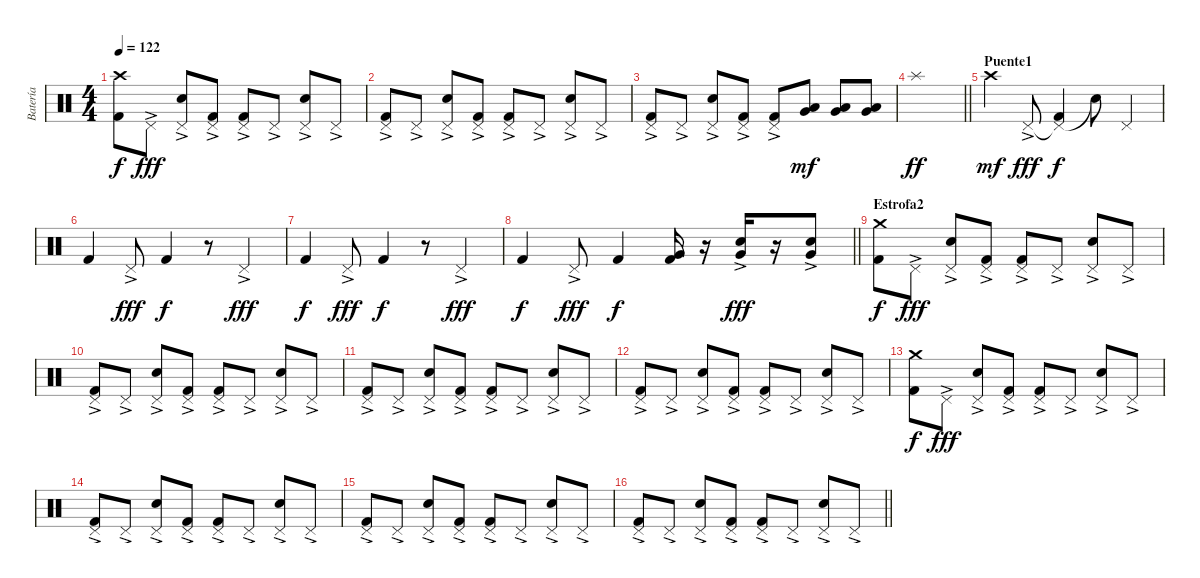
\track ("Batería" "Batería") {instrument percussion}
\staff {score}
\articulation defaults
\ts (4 4)
\tempo 122
\clef neutral
\ks c
("Crash high (hit)" "Kick (hit) 2").8{dy f} "Pedal Hi-Hat (hit)"{ac}.8{dy fff} ("Pedal Hi-Hat (hit)"{ac} "Electric Snare (hit)").8 ("Pedal Hi-Hat (hit)"{ac} "Kick (hit) 2").8 ("Pedal Hi-Hat (hit)"{ac} "Kick (hit) 2").8 "Pedal Hi-Hat (hit)"{ac}.8 ("Pedal Hi-Hat (hit)"{ac} "Electric Snare (hit)").8 "Pedal Hi-Hat (hit)"{ac}.8 |
("Pedal Hi-Hat (hit)"{ac} "Kick (hit) 2").8 "Pedal Hi-Hat (hit)"{ac}.8 ("Pedal Hi-Hat (hit)"{ac} "Electric Snare (hit)").8 ("Pedal Hi-Hat (hit)"{ac} "Kick (hit) 2").8 ("Pedal Hi-Hat (hit)"{ac} "Kick (hit) 2").8 "Pedal Hi-Hat (hit)"{ac}.8 ("Pedal Hi-Hat (hit)"{ac} "Electric Snare (hit)").8 "Pedal Hi-Hat (hit)"{ac}.8 |
("Pedal Hi-Hat (hit)"{ac} "Kick (hit) 2").8 "Pedal Hi-Hat (hit)"{ac}.8 ("Pedal Hi-Hat (hit)"{ac} "Electric Snare (hit)").8 ("Pedal Hi-Hat (hit)"{ac} "Kick (hit) 2").8 ("Pedal Hi-Hat (hit)"{ac} "Kick (hit) 2").8 ("Low Floor Tom (hit)" "Very Low Tom (hit)").8{dy mf} ("Low Floor Tom (hit)" "Very Low Tom (hit)").8 ("Low Floor Tom (hit)" "Very Low Tom (hit)").8 |
\barLineRight lightlight "Splash (hit)".1{dy ff}
|
\section ("" "Puente1")
"Crash high (hit)".4{dy mf} "Pedal Hi-Hat (hit)"{ac}.8{dy fff} ("Pedal Hi-Hat (hit)"{t} "Kick (hit) 2").4{dy f} "Snare (hit)"{t}.8 "Pedal Hi-Hat (hit)".4 |
"Kick (hit) 2".4 "Pedal Hi-Hat (hit)"{ac}.8{dy fff} "Kick (hit) 2".4{dy f} r.8 "Pedal Hi-Hat (hit)"{ac}.4{dy fff} |
"Kick (hit) 2".4{dy f} "Pedal Hi-Hat (hit)"{ac}.8{dy fff} "Kick (hit) 2".4{dy f} r.8 "Pedal Hi-Hat (hit)"{ac}.4{dy fff} |
\barLineRight lightlight "Kick (hit) 2".4{dy f} "Pedal Hi-Hat (hit)"{ac}.8{dy fff} "Kick (hit) 2".4{dy f}
("Very Low Tom (hit)" "Kick (hit) 2").16 r.16 ("Electric Snare (hit)" "Very Low Tom (hit)"{ac}).16{dy fff} r.16 ("Electric Snare (hit)" "Very Low Tom (hit)"{ac}).8 |
\section ("" "Estrofa2")
("Crash medium (hit)" "Kick (hit) 2").8{dy f} "Pedal Hi-Hat (hit)"{ac}.8{dy fff} ("Pedal Hi-Hat (hit)"{ac} "Electric Snare (hit)").8 ("Pedal Hi-Hat (hit)"{ac} "Kick (hit) 2").8 ("Pedal Hi-Hat (hit)"{ac} "Kick (hit) 2").8 "Pedal Hi-Hat (hit)"{ac}.8 ("Pedal Hi-Hat (hit)"{ac} "Electric Snare (hit)").8 "Pedal Hi-Hat (hit)"{ac}.8 |
("Pedal Hi-Hat (hit)"{ac} "Kick (hit) 2").8 "Pedal Hi-Hat (hit)"{ac}.8 ("Pedal Hi-Hat (hit)"{ac} "Electric Snare (hit)").8 ("Pedal Hi-Hat (hit)"{ac} "Kick (hit) 2").8 ("Pedal Hi-Hat (hit)"{ac} "Kick (hit) 2").8 "Pedal Hi-Hat (hit)"{ac}.8 ("Pedal Hi-Hat (hit)"{ac} "Electric Snare (hit)").8 "Pedal Hi-Hat (hit)"{ac}.8 |
("Pedal Hi-Hat (hit)"{ac} "Kick (hit) 2").8 "Pedal Hi-Hat (hit)"{ac}.8 ("Pedal Hi-Hat (hit)"{ac} "Electric Snare (hit)").8 ("Pedal Hi-Hat (hit)"{ac} "Kick (hit) 2").8 ("Pedal Hi-Hat (hit)"{ac} "Kick (hit) 2").8 "Pedal Hi-Hat (hit)"{ac}.8 ("Pedal Hi-Hat (hit)"{ac} "Electric Snare (hit)").8 "Pedal Hi-Hat (hit)"{ac}.8 |
("Pedal Hi-Hat (hit)"{ac} "Kick (hit) 2").8 "Pedal Hi-Hat (hit)"{ac}.8 ("Pedal Hi-Hat (hit)"{ac} "Electric Snare (hit)").8 ("Pedal Hi-Hat (hit)"{ac} "Kick (hit) 2").8 ("Pedal Hi-Hat (hit)"{ac} "Kick (hit) 2").8 "Pedal Hi-Hat (hit)"{ac}.8 ("Pedal Hi-Hat (hit)"{ac} "Electric Snare (hit)").8 "Pedal Hi-Hat (hit)"{ac}.8 |
("Crash medium (hit)" "Kick (hit) 2").8{dy f} "Pedal Hi-Hat (hit)"{ac}.8{dy fff} ("Pedal Hi-Hat (hit)"{ac} "Electric Snare (hit)").8 ("Pedal Hi-Hat (hit)"{ac} "Kick (hit) 2").8 ("Pedal Hi-Hat (hit)"{ac} "Kick (hit) 2").8 "Pedal Hi-Hat (hit)"{ac}.8 ("Pedal Hi-Hat (hit)"{ac} "Electric Snare (hit)").8 "Pedal Hi-Hat (hit)"{ac}.8 |
("Pedal Hi-Hat (hit)"{ac} "Kick (hit) 2").8 "Pedal Hi-Hat (hit)"{ac}.8 ("Pedal Hi-Hat (hit)"{ac} "Electric Snare (hit)").8 ("Pedal Hi-Hat (hit)"{ac} "Kick (hit) 2").8 ("Pedal Hi-Hat (hit)"{ac} "Kick (hit) 2").8 "Pedal Hi-Hat (hit)"{ac}.8 ("Pedal Hi-Hat (hit)"{ac} "Electric Snare (hit)").8 "Pedal Hi-Hat (hit)"{ac}.8 |
("Pedal Hi-Hat (hit)"{ac} "Kick (hit) 2").8 "Pedal Hi-Hat (hit)"{ac}.8 ("Pedal Hi-Hat (hit)"{ac} "Electric Snare (hit)").8 ("Pedal Hi-Hat (hit)"{ac} "Kick (hit) 2").8 ("Pedal Hi-Hat (hit)"{ac} "Kick (hit) 2").8 "Pedal Hi-Hat (hit)"{ac}.8 ("Pedal Hi-Hat (hit)"{ac} "Electric Snare (hit)").8 "Pedal Hi-Hat (hit)"{ac}.8 |
\barLineRight lightlight
("Pedal Hi-Hat (hit)"{ac} "Kick (hit) 2").8 "Pedal Hi-Hat (hit)"{ac}.8 ("Pedal Hi-Hat (hit)"{ac} "Electric Snare (hit)").8 ("Pedal Hi-Hat (hit)"{ac} "Kick (hit) 2").8 ("Pedal Hi-Hat (hit)"{ac} "Kick (hit) 2").8 "Pedal Hi-Hat (hit)"{ac}.8 ("Pedal Hi-Hat (hit)"{ac} "Electric Snare (hit)").8 "Pedal Hi-Hat (hit)"{ac}.8
